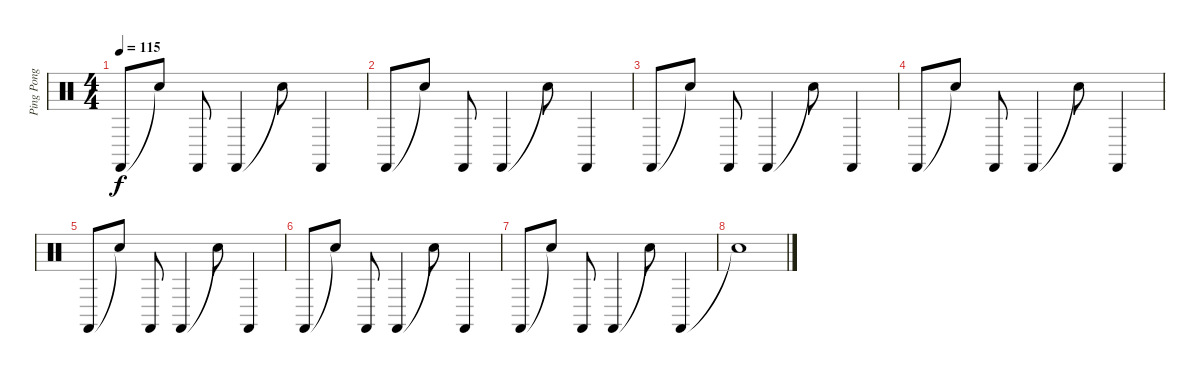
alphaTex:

\track ("Ping Pong" "Ping Pong") {instrument percussion}
\staff {score}
\articulation defaults
\ts (4 4)
\tempo 115
\clef neutral
\ks c "Castanets (hit)".8{dy f} "Snare (hit)"{t}.8 "Castanets (hit)".8 "Castanets (hit)".4 "Snare (hit)"{t}.8 "Castanets (hit)".4
|
"Castanets (hit)".8 "Snare (hit)"{t}.8 "Castanets (hit)".8 "Castanets (hit)".4 "Snare (hit)"{t}.8 "Castanets (hit)".4 |
"Castanets (hit)".8 "Snare (hit)"{t}.8 "Castanets (hit)".8 "Castanets (hit)".4 "Snare (hit)"{t}.8 "Castanets (hit)".4 |
"Castanets (hit)".8 "Snare (hit)"{t}.8 "Castanets (hit)".8 "Castanets (hit)".4 "Snare (hit)"{t}.8 "Castanets (hit)".4 |
"Castanets (hit)".8 "Snare (hit)"{t}.8 "Castanets (hit)".8 "Castanets (hit)".4 "Snare (hit)"{t}.8 "Castanets (hit)".4 |
"Castanets (hit)".8 "Snare (hit)"{t}.8 "Castanets (hit)".8 "Castanets (hit)".4 "Snare (hit)"{t}.8 "Castanets (hit)".4 |
"Castanets (hit)".8 "Snare (hit)"{t}.8 "Castanets (hit)".8 "Castanets (hit)".4 "Snare (hit)"{t}.8 "Castanets (hit)".4 |
"Snare (hit)"{t}.1
